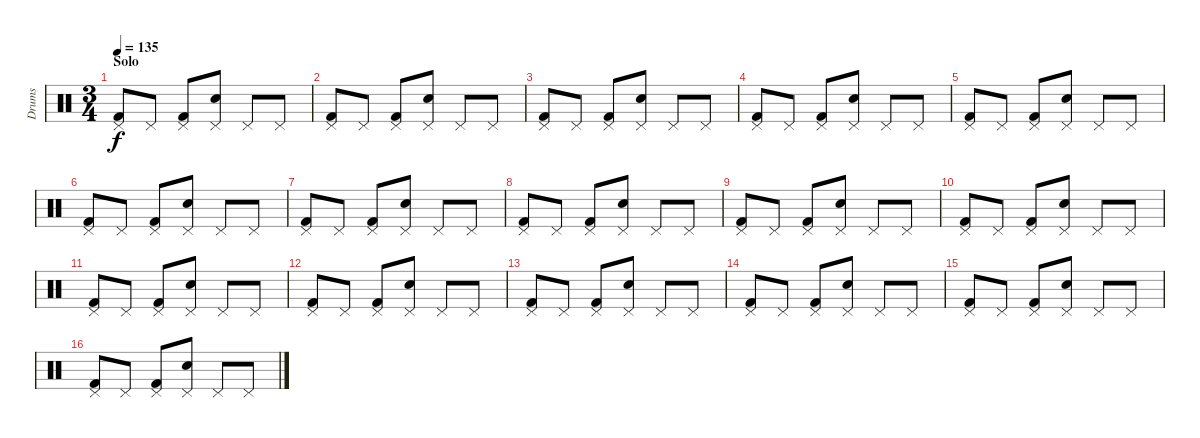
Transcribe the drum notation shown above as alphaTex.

\track ("Drums" "Drums") {instrument percussion}
\staff {score}
\articulation defaults
\ts (3 4)
\section ("" "Solo")
\tempo 135
\clef neutral
\ks c
("Pedal Hi-Hat (hit)" "Kick (hit) 2").8{dy f} "Pedal Hi-Hat (hit)".8 ("Pedal Hi-Hat (hit)" "Kick (hit) 2").8 ("Pedal Hi-Hat (hit)" "Snare (hit) 2").8 "Pedal Hi-Hat (hit)".8 "Pedal Hi-Hat (hit)".8 |
("Pedal Hi-Hat (hit)" "Kick (hit) 2").8 "Pedal Hi-Hat (hit)".8 ("Pedal Hi-Hat (hit)" "Kick (hit) 2").8 ("Pedal Hi-Hat (hit)" "Snare (hit) 2").8 "Pedal Hi-Hat (hit)".8 "Pedal Hi-Hat (hit)".8 |
("Pedal Hi-Hat (hit)" "Kick (hit) 2").8 "Pedal Hi-Hat (hit)".8 ("Pedal Hi-Hat (hit)" "Kick (hit) 2").8 ("Pedal Hi-Hat (hit)" "Snare (hit) 2").8 "Pedal Hi-Hat (hit)".8 "Pedal Hi-Hat (hit)".8 |
("Pedal Hi-Hat (hit)" "Kick (hit) 2").8 "Pedal Hi-Hat (hit)".8 ("Pedal Hi-Hat (hit)" "Kick (hit) 2").8 ("Pedal Hi-Hat (hit)" "Snare (hit) 2").8 "Pedal Hi-Hat (hit)".8 "Pedal Hi-Hat (hit)".8 |
("Pedal Hi-Hat (hit)" "Kick (hit) 2").8 "Pedal Hi-Hat (hit)".8 ("Pedal Hi-Hat (hit)" "Kick (hit) 2").8 ("Pedal Hi-Hat (hit)" "Snare (hit) 2").8 "Pedal Hi-Hat (hit)".8 "Pedal Hi-Hat (hit)".8 |
("Pedal Hi-Hat (hit)" "Kick (hit) 2").8 "Pedal Hi-Hat (hit)".8 ("Pedal Hi-Hat (hit)" "Kick (hit) 2").8 ("Pedal Hi-Hat (hit)" "Snare (hit) 2").8 "Pedal Hi-Hat (hit)".8 "Pedal Hi-Hat (hit)".8 |
("Pedal Hi-Hat (hit)" "Kick (hit) 2").8 "Pedal Hi-Hat (hit)".8 ("Pedal Hi-Hat (hit)" "Kick (hit) 2").8 ("Pedal Hi-Hat (hit)" "Snare (hit) 2").8 "Pedal Hi-Hat (hit)".8 "Pedal Hi-Hat (hit)".8 |
("Pedal Hi-Hat (hit)" "Kick (hit) 2").8 "Pedal Hi-Hat (hit)".8 ("Pedal Hi-Hat (hit)" "Kick (hit) 2").8 ("Pedal Hi-Hat (hit)" "Snare (hit) 2").8 "Pedal Hi-Hat (hit)".8 "Pedal Hi-Hat (hit)".8 |
("Pedal Hi-Hat (hit)" "Kick (hit) 2").8 "Pedal Hi-Hat (hit)".8 ("Pedal Hi-Hat (hit)" "Kick (hit) 2").8 ("Pedal Hi-Hat (hit)" "Snare (hit) 2").8 "Pedal Hi-Hat (hit)".8 "Pedal Hi-Hat (hit)".8 |
("Pedal Hi-Hat (hit)" "Kick (hit) 2").8 "Pedal Hi-Hat (hit)".8 ("Pedal Hi-Hat (hit)" "Kick (hit) 2").8 ("Pedal Hi-Hat (hit)" "Snare (hit) 2").8 "Pedal Hi-Hat (hit)".8 "Pedal Hi-Hat (hit)".8 |
("Pedal Hi-Hat (hit)" "Kick (hit) 2").8 "Pedal Hi-Hat (hit)".8 ("Pedal Hi-Hat (hit)" "Kick (hit) 2").8 ("Pedal Hi-Hat (hit)" "Snare (hit) 2").8 "Pedal Hi-Hat (hit)".8 "Pedal Hi-Hat (hit)".8 |
("Pedal Hi-Hat (hit)" "Kick (hit) 2").8 "Pedal Hi-Hat (hit)".8 ("Pedal Hi-Hat (hit)" "Kick (hit) 2").8 ("Pedal Hi-Hat (hit)" "Snare (hit) 2").8 "Pedal Hi-Hat (hit)".8 "Pedal Hi-Hat (hit)".8 |
("Pedal Hi-Hat (hit)" "Kick (hit) 2").8 "Pedal Hi-Hat (hit)".8 ("Pedal Hi-Hat (hit)" "Kick (hit) 2").8 ("Pedal Hi-Hat (hit)" "Snare (hit) 2").8 "Pedal Hi-Hat (hit)".8 "Pedal Hi-Hat (hit)".8 |
("Pedal Hi-Hat (hit)" "Kick (hit) 2").8 "Pedal Hi-Hat (hit)".8 ("Pedal Hi-Hat (hit)" "Kick (hit) 2").8 ("Pedal Hi-Hat (hit)" "Snare (hit) 2").8 "Pedal Hi-Hat (hit)".8 "Pedal Hi-Hat (hit)".8 |
("Pedal Hi-Hat (hit)" "Kick (hit) 2").8 "Pedal Hi-Hat (hit)".8 ("Pedal Hi-Hat (hit)" "Kick (hit) 2").8 ("Pedal Hi-Hat (hit)" "Snare (hit) 2").8 "Pedal Hi-Hat (hit)".8 "Pedal Hi-Hat (hit)".8 |
("Pedal Hi-Hat (hit)" "Kick (hit) 2").8 "Pedal Hi-Hat (hit)".8 ("Pedal Hi-Hat (hit)" "Kick (hit) 2").8 ("Pedal Hi-Hat (hit)" "Snare (hit) 2").8 "Pedal Hi-Hat (hit)".8 "Pedal Hi-Hat (hit)".8
